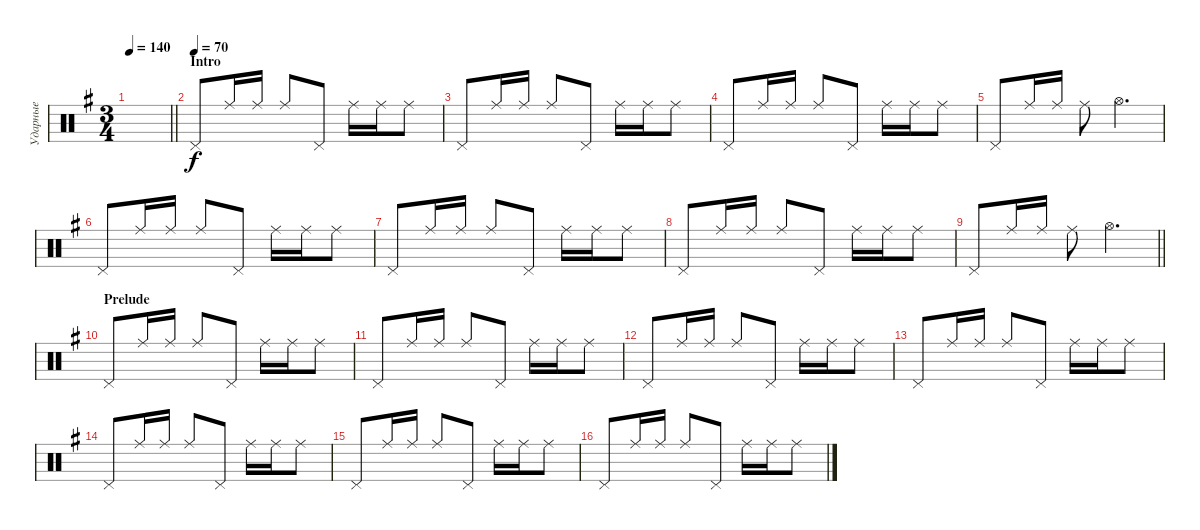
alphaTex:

\track ("Ударные" "Ударные") {instrument percussion}
\staff {score}
\articulation defaults
\ts (3 4)
\tempo 140
\clef neutral
\barLineRight lightlight
\ks eminor
|
\section ("" "Intro")
\tempo (70)
"Pedal Hi-Hat (hit)".8{volume 9} "Ride (middle)".16 "Ride (middle)".16 "Ride (middle)".8 "Pedal Hi-Hat (hit)".8 "Ride (middle)".16 "Ride (middle)".16 "Ride (middle)".8 |
"Pedal Hi-Hat (hit)".8 "Ride (middle)".16 "Ride (middle)".16 "Ride (middle)".8 "Pedal Hi-Hat (hit)".8 "Ride (middle)".16 "Ride (middle)".16 "Ride (middle)".8 |
"Pedal Hi-Hat (hit)".8 "Ride (middle)".16 "Ride (middle)".16 "Ride (middle)".8 "Pedal Hi-Hat (hit)".8 "Ride (middle)".16 "Ride (middle)".16 "Ride (middle)".8 |
"Pedal Hi-Hat (hit)".8 "Ride (middle)".16 "Ride (middle)".16 "Ride (middle)".8 "Hi-Hat (open)".4{d} |
"Pedal Hi-Hat (hit)".8 "Ride (middle)".16 "Ride (middle)".16 "Ride (middle)".8 "Pedal Hi-Hat (hit)".8 "Ride (middle)".16 "Ride (middle)".16 "Ride (middle)".8 |
"Pedal Hi-Hat (hit)".8 "Ride (middle)".16 "Ride (middle)".16 "Ride (middle)".8 "Pedal Hi-Hat (hit)".8 "Ride (middle)".16 "Ride (middle)".16 "Ride (middle)".8 |
"Pedal Hi-Hat (hit)".8 "Ride (middle)".16 "Ride (middle)".16 "Ride (middle)".8 "Pedal Hi-Hat (hit)".8 "Ride (middle)".16 "Ride (middle)".16 "Ride (middle)".8 |
\barLineRight lightlight "Pedal Hi-Hat (hit)".8 "Ride (middle)".16 "Ride (middle)".16 "Ride (middle)".8 "Hi-Hat (open)".4{d}
|
\section ("" "Prelude")
"Pedal Hi-Hat (hit)".8 "Ride (middle)".16 "Ride (middle)".16 "Ride (middle)".8 "Pedal Hi-Hat (hit)".8 "Ride (middle)".16 "Ride (middle)".16 "Ride (middle)".8 |
"Pedal Hi-Hat (hit)".8 "Ride (middle)".16 "Ride (middle)".16 "Ride (middle)".8 "Pedal Hi-Hat (hit)".8 "Ride (middle)".16 "Ride (middle)".16 "Ride (middle)".8 |
"Pedal Hi-Hat (hit)".8 "Ride (middle)".16 "Ride (middle)".16 "Ride (middle)".8 "Pedal Hi-Hat (hit)".8 "Ride (middle)".16 "Ride (middle)".16 "Ride (middle)".8 |
"Pedal Hi-Hat (hit)".8 "Ride (middle)".16 "Ride (middle)".16 "Ride (middle)".8 "Pedal Hi-Hat (hit)".8 "Ride (middle)".16 "Ride (middle)".16 "Ride (middle)".8 |
"Pedal Hi-Hat (hit)".8 "Ride (middle)".16 "Ride (middle)".16 "Ride (middle)".8 "Pedal Hi-Hat (hit)".8 "Ride (middle)".16 "Ride (middle)".16 "Ride (middle)".8 |
"Pedal Hi-Hat (hit)".8 "Ride (middle)".16 "Ride (middle)".16 "Ride (middle)".8 "Pedal Hi-Hat (hit)".8 "Ride (middle)".16 "Ride (middle)".16 "Ride (middle)".8 |
"Pedal Hi-Hat (hit)".8 "Ride (middle)".16 "Ride (middle)".16 "Ride (middle)".8 "Pedal Hi-Hat (hit)".8 "Ride (middle)".16 "Ride (middle)".16 "Ride (middle)".8
